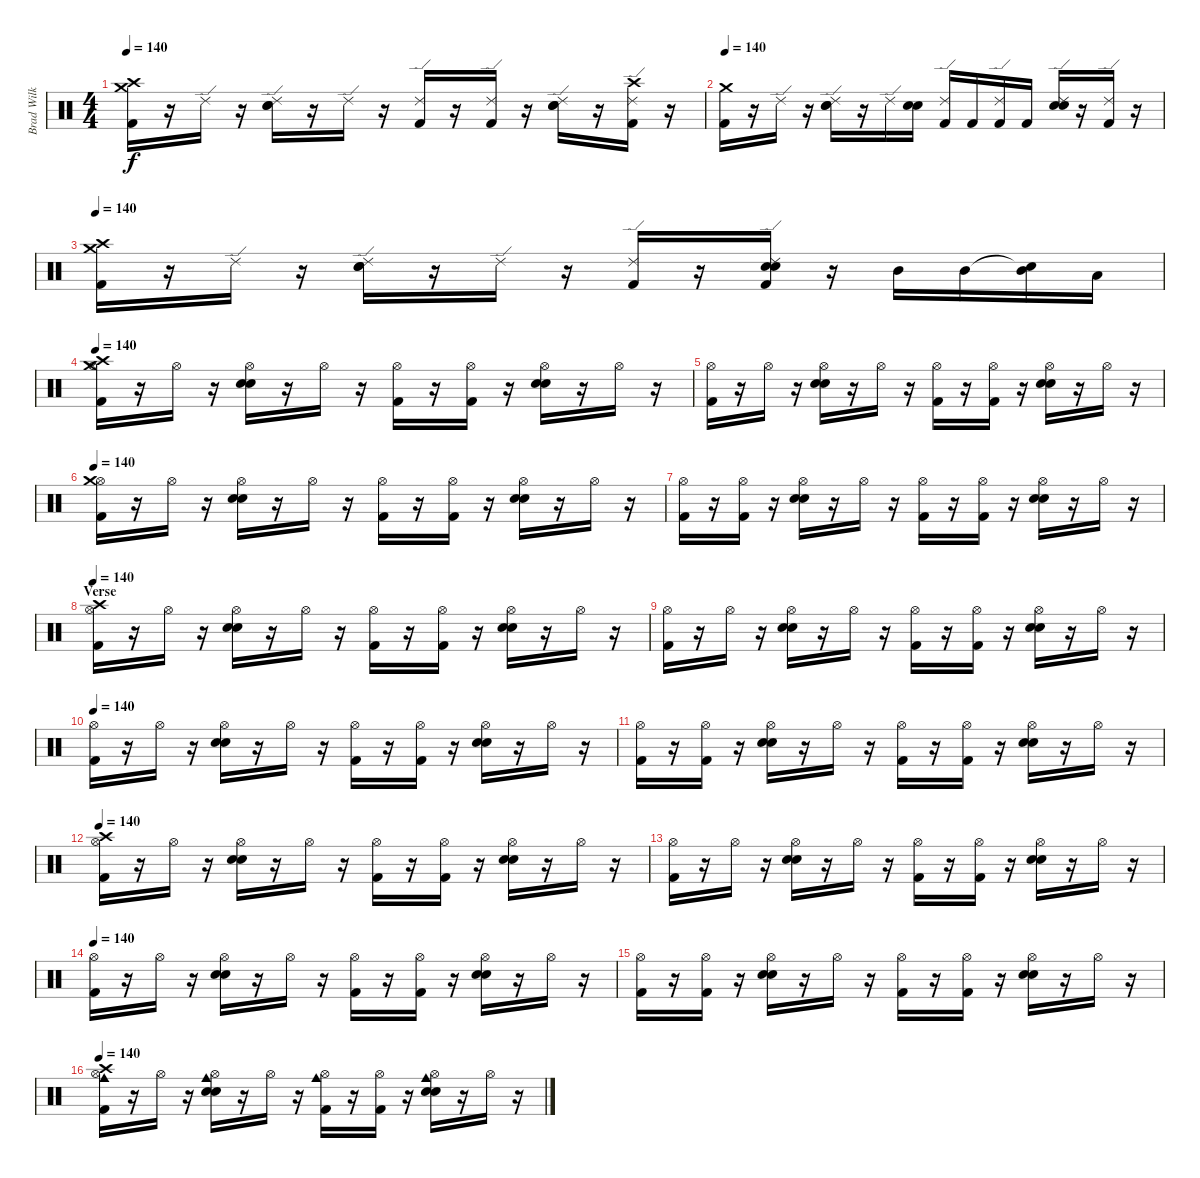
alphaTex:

\track ("Brad Wilk" "Brad Wilk") {instrument percussion}
\staff {score}
\articulation defaults
\ts (4 4)
\tempo 140
\clef neutral
\ks c
("Crash medium (hit)" "Crash high (hit)" "Kick (hit) 2").16{dy f} r.16 "Ride (edge) 2".16 r.16 ("Ride (edge) 2" "Electric Snare (hit)" "Snare (hit) 2").16 r.16 "Ride (edge) 2".16 r.16 ("Ride (edge) 2" "Kick (hit) 2").16 r.16 ("Ride (edge) 2" "Kick (hit) 2").16 r.16 ("Ride (edge) 2" "Electric Snare (hit)" "Snare (hit) 2").16 r.16 ("Ride (edge) 2" "Crash high (hit)" "Kick (hit) 2").16 r.16 |
\tempo 130
\tempo 140
("Crash medium (hit)" "Kick (hit) 2").16 r.16 "Ride (edge) 2".16 r.16 ("Ride (edge) 2" "Electric Snare (hit)" "Snare (hit) 2").16 r.16 "Ride (edge) 2".16 ("Electric Snare (hit)" "Snare (hit) 2").16 ("Ride (edge) 2" "Kick (hit) 2").16 "Kick (hit) 2".16 ("Ride (edge) 2" "Kick (hit) 2").16 "Kick (hit) 2".16 ("Ride (edge) 2" "Electric Snare (hit)" "Snare (hit) 2").16 r.16 ("Ride (edge) 2" "Kick (hit) 2").16 r.16 |
\tempo 140
("Crash medium (hit)" "Crash high (hit)" "Kick (hit) 2").16 r.16 "Ride (edge) 2".16 r.16 ("Ride (edge) 2" "Electric Snare (hit)" "Snare (hit) 2").16 r.16 "Ride (edge) 2".16 r.16 ("Ride (edge) 2" "Kick (hit) 2").16 r.16 ("Ride (edge) 2" "Snare (hit) 2" "Electric Snare (hit)" "Kick (hit) 2").16 r.16 "Mid Tom (hit)".16 "Mid Tom (hit)".16 ("Snare (hit)"{t} "Mid Tom (hit)").16 "Low Tom (hit)".16 |
\tempo 140
("Hi-Hat (open)" "Crash medium (hit)" "Crash high (hit)" "Kick (hit) 2").16 r.16 "Hi-Hat (open)".16 r.16 ("Hi-Hat (open)" "Electric Snare (hit)" "Snare (hit) 2").16 r.16 "Hi-Hat (open)".16 r.16 ("Hi-Hat (open)" "Kick (hit) 2").16 r.16 ("Hi-Hat (open)" "Kick (hit) 2").16 r.16 ("Hi-Hat (open)" "Electric Snare (hit)" "Snare (hit) 2").16 r.16 "Hi-Hat (open)".16 r.16 |
("Hi-Hat (open)" "Kick (hit) 2").16 r.16 "Hi-Hat (open)".16 r.16 ("Hi-Hat (open)" "Electric Snare (hit)" "Snare (hit) 2").16 r.16 "Hi-Hat (open)".16 r.16 ("Hi-Hat (open)" "Kick (hit) 2").16 r.16 ("Hi-Hat (open)" "Kick (hit) 2").16 r.16 ("Hi-Hat (open)" "Electric Snare (hit)" "Snare (hit) 2").16 r.16 "Hi-Hat (open)".16 r.16 |
\tempo 140
("Hi-Hat (open)" "Crash medium (hit)" "Kick (hit) 2").16 r.16 "Hi-Hat (open)".16 r.16 ("Hi-Hat (open)" "Electric Snare (hit)" "Snare (hit) 2").16 r.16 "Hi-Hat (open)".16 r.16 ("Hi-Hat (open)" "Kick (hit) 2").16 r.16 ("Hi-Hat (open)" "Kick (hit) 2").16 r.16 ("Hi-Hat (open)" "Electric Snare (hit)" "Snare (hit) 2").16 r.16 "Hi-Hat (open)".16 r.16 |
("Hi-Hat (open)" "Kick (hit) 2").16 r.16 ("Hi-Hat (open)" "Kick (hit) 2").16 r.16 ("Hi-Hat (open)" "Electric Snare (hit)" "Snare (hit) 2").16 r.16 "Hi-Hat (open)".16 r.16 ("Hi-Hat (open)" "Kick (hit) 2").16 r.16 ("Hi-Hat (open)" "Kick (hit) 2").16 r.16 ("Hi-Hat (open)" "Electric Snare (hit)" "Snare (hit) 2").16 r.16 "Hi-Hat (open)".16 r.16 |
\section ("" "Verse")
\tempo 140
("Hi-Hat (open)" "Crash high (hit)" "Kick (hit) 2").16 r.16 "Hi-Hat (open)".16 r.16 ("Hi-Hat (open)" "Electric Snare (hit)" "Snare (hit) 2").16 r.16 "Hi-Hat (open)".16 r.16 ("Hi-Hat (open)" "Kick (hit) 2").16 r.16 ("Hi-Hat (open)" "Kick (hit) 2").16 r.16 ("Hi-Hat (open)" "Electric Snare (hit)" "Snare (hit) 2").16 r.16 "Hi-Hat (open)".16 r.16 |
("Hi-Hat (open)" "Kick (hit) 2").16 r.16 "Hi-Hat (open)".16 r.16 ("Hi-Hat (open)" "Electric Snare (hit)" "Snare (hit) 2").16 r.16 "Hi-Hat (open)".16 r.16 ("Hi-Hat (open)" "Kick (hit) 2").16 r.16 ("Hi-Hat (open)" "Kick (hit) 2").16 r.16 ("Hi-Hat (open)" "Electric Snare (hit)" "Snare (hit) 2").16 r.16 "Hi-Hat (open)".16 r.16 |
\tempo 140
("Hi-Hat (open)" "Kick (hit) 2").16 r.16 "Hi-Hat (open)".16 r.16 ("Hi-Hat (open)" "Electric Snare (hit)" "Snare (hit) 2").16 r.16 "Hi-Hat (open)".16 r.16 ("Hi-Hat (open)" "Kick (hit) 2").16 r.16 ("Hi-Hat (open)" "Kick (hit) 2").16 r.16 ("Hi-Hat (open)" "Electric Snare (hit)" "Snare (hit) 2").16 r.16 "Hi-Hat (open)".16 r.16 |
("Hi-Hat (open)" "Kick (hit) 2").16 r.16 ("Hi-Hat (open)" "Kick (hit) 2").16 r.16 ("Hi-Hat (open)" "Electric Snare (hit)" "Snare (hit) 2").16 r.16 "Hi-Hat (open)".16 r.16 ("Hi-Hat (open)" "Kick (hit) 2").16 r.16 ("Hi-Hat (open)" "Kick (hit) 2").16 r.16 ("Hi-Hat (open)" "Electric Snare (hit)" "Snare (hit) 2").16 r.16 "Hi-Hat (open)".16 r.16 |
\tempo 140
("Hi-Hat (open)" "Crash high (hit)" "Kick (hit) 2").16 r.16 "Hi-Hat (open)".16 r.16 ("Hi-Hat (open)" "Electric Snare (hit)" "Snare (hit) 2").16 r.16 "Hi-Hat (open)".16 r.16 ("Hi-Hat (open)" "Kick (hit) 2").16 r.16 ("Hi-Hat (open)" "Kick (hit) 2").16 r.16 ("Hi-Hat (open)" "Electric Snare (hit)" "Snare (hit) 2").16 r.16 "Hi-Hat (open)".16 r.16 |
("Hi-Hat (open)" "Kick (hit) 2").16 r.16 "Hi-Hat (open)".16 r.16 ("Hi-Hat (open)" "Electric Snare (hit)" "Snare (hit) 2").16 r.16 "Hi-Hat (open)".16 r.16 ("Hi-Hat (open)" "Kick (hit) 2").16 r.16 ("Hi-Hat (open)" "Kick (hit) 2").16 r.16 ("Hi-Hat (open)" "Electric Snare (hit)" "Snare (hit) 2").16 r.16 "Hi-Hat (open)".16 r.16 |
\tempo 140
("Hi-Hat (open)" "Kick (hit) 2").16 r.16 "Hi-Hat (open)".16 r.16 ("Hi-Hat (open)" "Electric Snare (hit)" "Snare (hit) 2").16 r.16 "Hi-Hat (open)".16 r.16 ("Hi-Hat (open)" "Kick (hit) 2").16 r.16 ("Hi-Hat (open)" "Kick (hit) 2").16 r.16 ("Hi-Hat (open)" "Electric Snare (hit)" "Snare (hit) 2").16 r.16 "Hi-Hat (open)".16 r.16 |
("Hi-Hat (open)" "Kick (hit) 2").16 r.16 ("Hi-Hat (open)" "Kick (hit) 2").16 r.16 ("Hi-Hat (open)" "Electric Snare (hit)" "Snare (hit) 2").16 r.16 "Hi-Hat (open)".16 r.16 ("Hi-Hat (open)" "Kick (hit) 2").16 r.16 ("Hi-Hat (open)" "Kick (hit) 2").16 r.16 ("Hi-Hat (open)" "Electric Snare (hit)" "Snare (hit) 2").16 r.16 "Hi-Hat (open)".16 r.16 |
\tempo 140
("Hi-Hat (open)" "Crash high (hit)" "Cowbell medium (hit)" "Kick (hit) 2").16 r.16 "Hi-Hat (open)".16 r.16 ("Hi-Hat (open)" "Cowbell medium (hit)" "Electric Snare (hit)" "Snare (hit) 2").16 r.16 "Hi-Hat (open)".16 r.16 ("Hi-Hat (open)" "Cowbell medium (hit)" "Kick (hit) 2").16 r.16 ("Hi-Hat (open)" "Kick (hit) 2").16 r.16 ("Hi-Hat (open)" "Cowbell medium (hit)" "Electric Snare (hit)" "Snare (hit) 2").16 r.16 "Hi-Hat (open)".16 r.16
